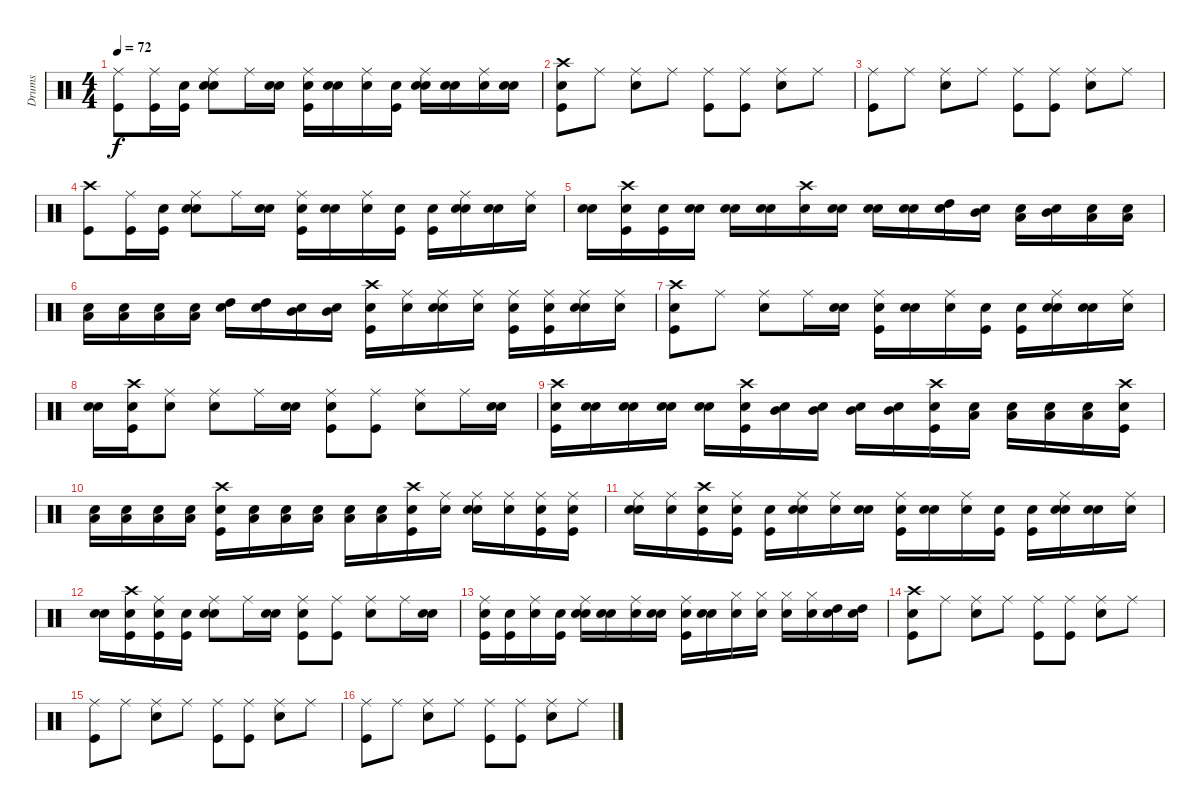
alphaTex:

\track ("Drums" "Drums") {instrument percussion}
\staff {score}
\articulation defaults
\ts (4 4)
\tempo 72
\clef neutral
\ks c
("Ride (middle)" "Kick (hit)").8{dy f} ("Ride (middle)" "Kick (hit)").16 ("Snare (hit)" "Kick (hit)").16 ("Snare (hit)" "Ride (middle)" "Snare (hit) 2").8 "Ride (middle)".16 ("Snare (hit)" "Snare (hit) 2").16 ("Snare (hit)" "Ride (middle)" "Kick (hit)").16 ("Snare (hit)" "Snare (hit) 2").16 ("Snare (hit)" "Ride (middle)").16 ("Snare (hit)" "Kick (hit)").16 ("Snare (hit)" "Ride (middle)" "Snare (hit) 2").16 ("Snare (hit)" "Snare (hit) 2").16 ("Snare (hit)" "Ride (middle)").16 ("Snare (hit)" "Snare (hit) 2").16 |
("Snare (hit)" "Crash high (hit)" "Kick (hit)").8 "Ride (middle)".8 ("Ride (middle)" "Snare (hit) 2").8 "Ride (middle)".8 ("Ride (middle)" "Kick (hit)").8 ("Ride (middle)" "Kick (hit)").8 ("Ride (middle)" "Snare (hit) 2").8 "Ride (middle)".8 |
("Ride (middle)" "Kick (hit)").8 "Ride (middle)".8 ("Ride (middle)" "Snare (hit) 2").8 "Ride (middle)".8 ("Ride (middle)" "Kick (hit)").8 ("Ride (middle)" "Kick (hit)").8 ("Ride (middle)" "Snare (hit) 2").8 "Ride (middle)".8 |
("Crash high (hit)" "Kick (hit)").8 ("Ride (middle)" "Kick (hit)").16 ("Snare (hit)" "Kick (hit)").16 ("Snare (hit)" "Ride (middle)" "Snare (hit) 2").8 "Ride (middle)".16 ("Snare (hit)" "Snare (hit) 2").16 ("Snare (hit)" "Ride (middle)" "Kick (hit)").16 ("Snare (hit)" "Snare (hit) 2").16 ("Snare (hit)" "Ride (middle)").16 ("Snare (hit)" "Kick (hit)").16 ("Snare (hit)" "Kick (hit)").16 ("Snare (hit)" "Ride (middle)" "Snare (hit) 2").16 ("Snare (hit)" "Snare (hit) 2").16 ("Snare (hit)" "Ride (middle)").16 |
("Snare (hit)" "Snare (hit) 2").16 ("Snare (hit)" "Crash high (hit)" "Kick (hit)").16 ("Snare (hit)" "Kick (hit)").16 ("Snare (hit)" "Snare (hit) 2").16 ("Snare (hit)" "Snare (hit) 2").16 ("Snare (hit)" "Snare (hit) 2").16 ("Snare (hit)" "Crash high (hit)").16 ("Snare (hit)" "Snare (hit) 2").16 ("Snare (hit)" "Snare (hit) 2").16 ("Snare (hit)" "Snare (hit) 2").16 ("Snare (hit)" "High Tom (hit)").16 ("Snare (hit)" "Mid Tom (hit)").16 ("Snare (hit)" "Low Tom (hit)").16 ("Snare (hit)" "Mid Tom (hit)").16 ("Snare (hit)" "Low Floor Tom (hit)").16 ("Snare (hit)" "Low Tom (hit)").16 |
("Snare (hit)" "Low Tom (hit)").16 ("Snare (hit)" "Low Tom (hit)").16 ("Snare (hit)" "Low Tom (hit)").16 ("Snare (hit)" "Low Tom (hit)").16 ("Snare (hit)" "High Tom (hit)").16 ("Snare (hit)" "High Tom (hit)").16 ("Snare (hit)" "Mid Tom (hit)").16 ("Snare (hit)" "Mid Tom (hit)").16 ("Snare (hit)" "Crash high (hit)" "Kick (hit)").16 ("Snare (hit)" "Ride (middle)").16 ("Snare (hit)" "Ride (middle)" "Snare (hit) 2").16 ("Snare (hit)" "Ride (middle)").16 ("Snare (hit)" "Ride (middle)" "Kick (hit)").16 ("Snare (hit)" "Ride (middle)" "Kick (hit)").16 ("Snare (hit)" "Ride (middle)" "Snare (hit) 2").16 ("Snare (hit)" "Ride (middle)").16 |
("Snare (hit)" "Crash high (hit)" "Kick (hit)").8 "Ride (middle)".8 ("Ride (middle)" "Snare (hit) 2").8 "Ride (middle)".16 ("Snare (hit)" "Snare (hit) 2").16 ("Snare (hit)" "Ride (middle)" "Kick (hit)").16 ("Snare (hit)" "Snare (hit) 2").16 ("Snare (hit)" "Ride (middle)").16 ("Snare (hit)" "Kick (hit)").16 ("Snare (hit)" "Kick (hit)").16 ("Snare (hit)" "Ride (middle)" "Snare (hit) 2").16 ("Snare (hit)" "Snare (hit) 2").16 ("Snare (hit)" "Ride (middle)").16 |
("Snare (hit)" "Snare (hit) 2").16 ("Snare (hit)" "Crash high (hit)" "Kick (hit)").16 ("Snare (hit)" "Ride (middle)").8 ("Ride (middle)" "Snare (hit) 2").8 "Ride (middle)".16 ("Snare (hit)" "Snare (hit) 2").16 ("Snare (hit)" "Ride (middle)" "Kick (hit)").8 ("Ride (middle)" "Kick (hit)").8 ("Ride (middle)" "Snare (hit) 2").8 "Ride (middle)".16 ("Snare (hit)" "Snare (hit) 2").16 |
("Snare (hit)" "Crash high (hit)" "Kick (hit)").16 ("Snare (hit)" "Snare (hit) 2").16 ("Snare (hit)" "Snare (hit) 2").16 ("Snare (hit)" "Snare (hit) 2").16 ("Snare (hit)" "Snare (hit) 2").16 ("Snare (hit)" "Crash high (hit)" "Kick (hit)").16 ("Snare (hit)" "Mid Tom (hit)").16 ("Snare (hit)" "Mid Tom (hit)").16 ("Snare (hit)" "Mid Tom (hit)").16 ("Snare (hit)" "Mid Tom (hit)").16 ("Snare (hit)" "Crash high (hit)" "Kick (hit)").16 ("Snare (hit)" "Low Tom (hit)").16 ("Snare (hit)" "Low Tom (hit)").16 ("Snare (hit)" "Low Tom (hit)").16 ("Snare (hit)" "Low Tom (hit)").16 ("Snare (hit)" "Crash high (hit)" "Kick (hit)").16 |
("Snare (hit)" "Low Floor Tom (hit)").16 ("Snare (hit)" "Low Floor Tom (hit)").16 ("Snare (hit)" "Low Floor Tom (hit)").16 ("Snare (hit)" "Low Floor Tom (hit)").16 ("Snare (hit)" "Crash high (hit)" "Kick (hit)").16 ("Snare (hit)" "Low Floor Tom (hit)").16 ("Snare (hit)" "Low Floor Tom (hit)").16 ("Snare (hit)" "Low Floor Tom (hit)").16 ("Snare (hit)" "Low Floor Tom (hit)").16 ("Snare (hit)" "Low Floor Tom (hit)").16 ("Snare (hit)" "Crash high (hit)" "Kick (hit)").16 ("Snare (hit)" "Ride (middle)").16 ("Snare (hit)" "Ride (middle)" "Snare (hit) 2").16 ("Snare (hit)" "Ride (middle)").16 ("Snare (hit)" "Ride (middle)" "Kick (hit)").16 ("Snare (hit)" "Ride (middle)" "Kick (hit)").16 |
("Snare (hit)" "Ride (middle)" "Snare (hit) 2").16 ("Snare (hit)" "Ride (middle)").16 ("Snare (hit)" "Crash high (hit)" "Kick (hit)").16 ("Snare (hit)" "Ride (middle)" "Kick (hit)").16 ("Snare (hit)" "Kick (hit)").16 ("Snare (hit)" "Ride (middle)" "Snare (hit) 2").16 ("Snare (hit)" "Ride (middle)").16 ("Snare (hit)" "Snare (hit) 2").16 ("Snare (hit)" "Ride (middle)" "Kick (hit)").16 ("Snare (hit)" "Snare (hit) 2").16 ("Snare (hit)" "Ride (middle)").16 ("Snare (hit)" "Kick (hit)").16 ("Snare (hit)" "Kick (hit)").16 ("Snare (hit)" "Ride (middle)" "Snare (hit) 2").16 ("Snare (hit)" "Snare (hit) 2").16 ("Snare (hit)" "Ride (middle)").16 |
("Snare (hit)" "Snare (hit) 2").16 ("Snare (hit)" "Crash high (hit)" "Kick (hit)").16 ("Snare (hit)" "Ride (middle)" "Kick (hit)").16 ("Snare (hit)" "Kick (hit)").16 ("Snare (hit)" "Ride (middle)" "Snare (hit) 2").8 "Ride (middle)".16 ("Snare (hit)" "Snare (hit) 2").16 ("Snare (hit)" "Ride (middle)" "Kick (hit)").8 ("Ride (middle)" "Kick (hit)").8 ("Ride (middle)" "Snare (hit) 2").8 "Ride (middle)".16 ("Snare (hit)" "Snare (hit) 2").16 |
("Snare (hit)" "Ride (middle)" "Kick (hit)").16 ("Snare (hit)" "Kick (hit)").16 ("Snare (hit)" "Ride (middle)").16 ("Snare (hit)" "Kick (hit)").16 ("Snare (hit)" "Ride (middle)" "Snare (hit) 2").16 ("Snare (hit)" "Snare (hit) 2").16 ("Snare (hit)" "Ride (middle)").16 ("Snare (hit)" "Snare (hit) 2").16 ("Snare (hit)" "Ride (middle)" "Kick (hit)").16 ("Snare (hit)" "Snare (hit) 2").16 ("Snare (hit)" "Hi-Hat (closed)").16 ("Snare (hit)" "Hi-Hat (closed)").16 ("Snare (hit)" "Hi-Hat (closed)").16 ("Snare (hit)" "Hi-Hat (closed)").16 ("Snare (hit)" "High Tom (hit)").16 ("Snare (hit)" "High Tom (hit)").16 |
("Snare (hit)" "Crash high (hit)" "Kick (hit)").8 "Ride (middle)".8 ("Ride (middle)" "Snare (hit) 2").8 "Ride (middle)".8 ("Ride (middle)" "Kick (hit)").8 ("Ride (middle)" "Kick (hit)").8 ("Ride (middle)" "Snare (hit) 2").8 "Ride (middle)".8 |
("Ride (middle)" "Kick (hit)").8 "Ride (middle)".8 ("Ride (middle)" "Snare (hit) 2").8 "Ride (middle)".8 ("Ride (middle)" "Kick (hit)").8 ("Ride (middle)" "Kick (hit)").8 ("Ride (middle)" "Snare (hit) 2").8 "Ride (middle)".8 |
("Ride (middle)" "Kick (hit)").8 "Ride (middle)".8 ("Ride (middle)" "Snare (hit) 2").8 "Ride (middle)".8 ("Ride (middle)" "Kick (hit)").8 ("Ride (middle)" "Kick (hit)").8 ("Ride (middle)" "Snare (hit) 2").8 "Ride (middle)".8
